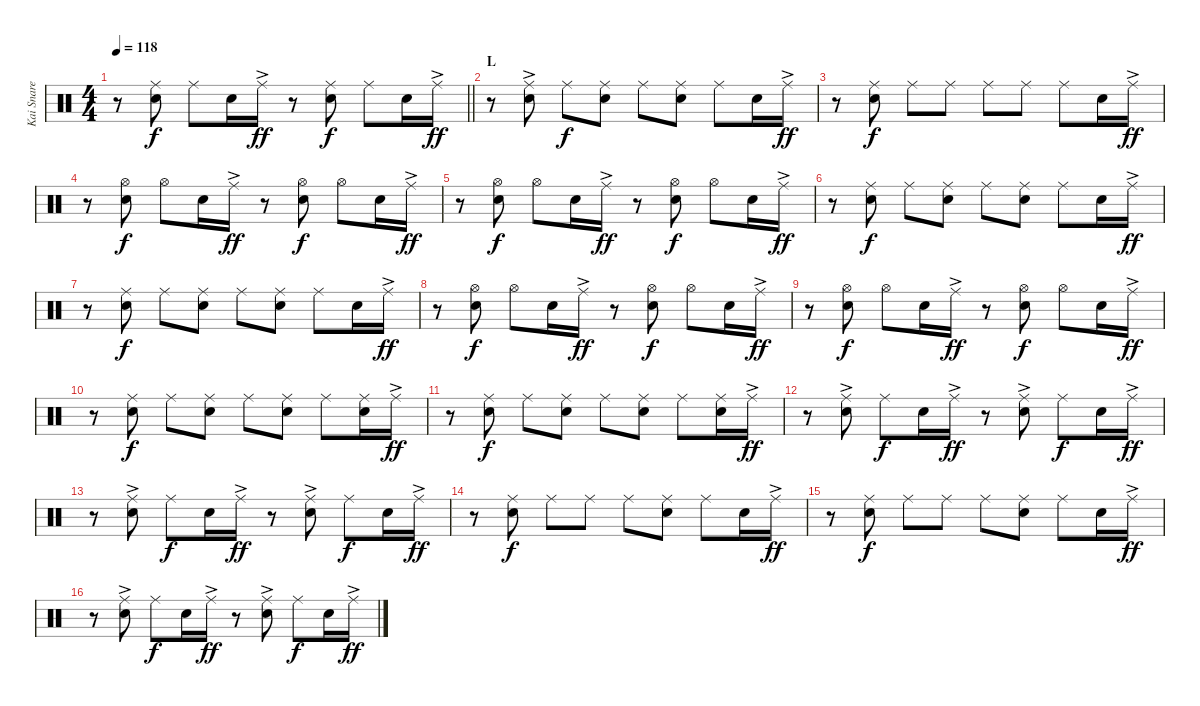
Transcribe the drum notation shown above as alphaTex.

\track ("Kai Snare" "Kai Snare") {instrument percussion}
\staff {score}
\articulation defaults
\ts (4 4)
\tempo 118
\clef neutral
\barLineRight lightlight
\ks c
r.8{dy ff} ("Ride (middle)" "Snare (hit) 2").8{dy f} "Ride (middle)".8 "Snare (hit) 2".16 "Ride (middle)"{ac}.16{dy ff} r.8 ("Ride (middle)" "Snare (hit) 2").8{dy f} "Ride (middle)".8 "Snare (hit) 2".16 "Ride (middle)"{ac}.16{dy ff} |
\section ("" "L")
r.8 ("Ride (middle)"{ac} "Snare (hit) 2").8 "Ride (middle)".8{dy f} ("Ride (middle)" "Snare (hit) 2").8 "Ride (middle)".8 ("Ride (middle)" "Snare (hit) 2").8 "Ride (middle)".8 "Snare (hit) 2".16 "Ride (middle)"{ac}.16{dy ff} |
r.8 ("Ride (middle)" "Snare (hit) 2").8{dy f} "Ride (middle)".8 "Ride (middle)".8 "Ride (middle)".8 "Ride (middle)".8 "Ride (middle)".8 "Snare (hit) 2".16 "Ride (middle)"{ac}.16{dy ff} |
r.8 ("Hi-Hat (open)" "Snare (hit) 2").8{dy f} "Hi-Hat (open)".8 "Snare (hit) 2".16 "Ride (middle)"{ac}.16{dy ff} r.8 ("Hi-Hat (open)" "Snare (hit) 2").8{dy f} "Hi-Hat (open)".8 "Snare (hit) 2".16 "Ride (middle)"{ac}.16{dy ff} |
r.8 ("Hi-Hat (open)" "Snare (hit) 2").8{dy f} "Hi-Hat (open)".8 "Snare (hit) 2".16 "Ride (middle)"{ac}.16{dy ff} r.8 ("Hi-Hat (open)" "Snare (hit) 2").8{dy f} "Hi-Hat (open)".8 "Snare (hit) 2".16 "Ride (middle)"{ac}.16{dy ff} |
r.8 ("Ride (middle)" "Snare (hit) 2").8{dy f} "Ride (middle)".8 ("Ride (middle)" "Snare (hit) 2").8 "Ride (middle)".8 ("Ride (middle)" "Snare (hit) 2").8 "Ride (middle)".8 "Snare (hit) 2".16 "Ride (middle)"{ac}.16{dy ff} |
r.8 ("Ride (middle)" "Snare (hit) 2").8{dy f} "Ride (middle)".8 ("Ride (middle)" "Snare (hit) 2").8 "Ride (middle)".8 ("Ride (middle)" "Snare (hit) 2").8 "Ride (middle)".8 "Snare (hit) 2".16 "Ride (middle)"{ac}.16{dy ff} |
r.8 ("Hi-Hat (open)" "Snare (hit) 2").8{dy f} "Hi-Hat (open)".8 "Snare (hit) 2".16 "Ride (middle)"{ac}.16{dy ff} r.8 ("Hi-Hat (open)" "Snare (hit) 2").8{dy f} "Hi-Hat (open)".8 "Snare (hit) 2".16 "Ride (middle)"{ac}.16{dy ff} |
r.8 ("Hi-Hat (open)" "Snare (hit) 2").8{dy f} "Hi-Hat (open)".8 "Snare (hit) 2".16 "Ride (middle)"{ac}.16{dy ff} r.8 ("Hi-Hat (open)" "Snare (hit) 2").8{dy f} "Hi-Hat (open)".8 "Snare (hit) 2".16 "Ride (middle)"{ac}.16{dy ff} |
r.8 ("Ride (middle)" "Snare (hit) 2").8{dy f} "Ride (middle)".8 ("Ride (middle)" "Snare (hit) 2").8 "Ride (middle)".8 ("Ride (middle)" "Snare (hit) 2").8 "Ride (middle)".8 ("Ride (middle)" "Snare (hit) 2").16 "Ride (middle)"{ac}.16{dy ff} |
r.8 ("Ride (middle)" "Snare (hit) 2").8{dy f} "Ride (middle)".8 ("Ride (middle)" "Snare (hit) 2").8 "Ride (middle)".8 ("Ride (middle)" "Snare (hit) 2").8 "Ride (middle)".8 ("Ride (middle)" "Snare (hit) 2").16 "Ride (middle)"{ac}.16{dy ff} |
r.8 ("Ride (middle)"{ac} "Snare (hit) 2").8 "Ride (middle)".8{dy f} "Snare (hit) 2".16 "Ride (middle)"{ac}.16{dy ff} r.8 ("Ride (middle)"{ac} "Snare (hit) 2").8 "Ride (middle)".8{dy f} "Snare (hit) 2".16 "Ride (middle)"{ac}.16{dy ff} |
r.8 ("Ride (middle)"{ac} "Snare (hit) 2").8 "Ride (middle)".8{dy f} "Snare (hit) 2".16 "Ride (middle)"{ac}.16{dy ff} r.8 ("Ride (middle)"{ac} "Snare (hit) 2").8 "Ride (middle)".8{dy f} "Snare (hit) 2".16 "Ride (middle)"{ac}.16{dy ff} |
r.8 ("Ride (middle)" "Snare (hit) 2").8{dy f} "Ride (middle)".8 "Ride (middle)".8 "Ride (middle)".8 ("Ride (middle)" "Snare (hit) 2").8 "Ride (middle)".8 "Snare (hit) 2".16 "Ride (middle)"{ac}.16{dy ff} |
r.8 ("Ride (middle)" "Snare (hit) 2").8{dy f} "Ride (middle)".8 "Ride (middle)".8 "Ride (middle)".8 ("Ride (middle)" "Snare (hit) 2").8 "Ride (middle)".8 "Snare (hit) 2".16 "Ride (middle)"{ac}.16{dy ff} |
r.8 ("Ride (middle)"{ac} "Snare (hit) 2").8 "Ride (middle)".8{dy f} "Snare (hit) 2".16 "Ride (middle)"{ac}.16{dy ff} r.8 ("Ride (middle)"{ac} "Snare (hit) 2").8 "Ride (middle)".8{dy f} "Snare (hit) 2".16 "Ride (middle)"{ac}.16{dy ff}
